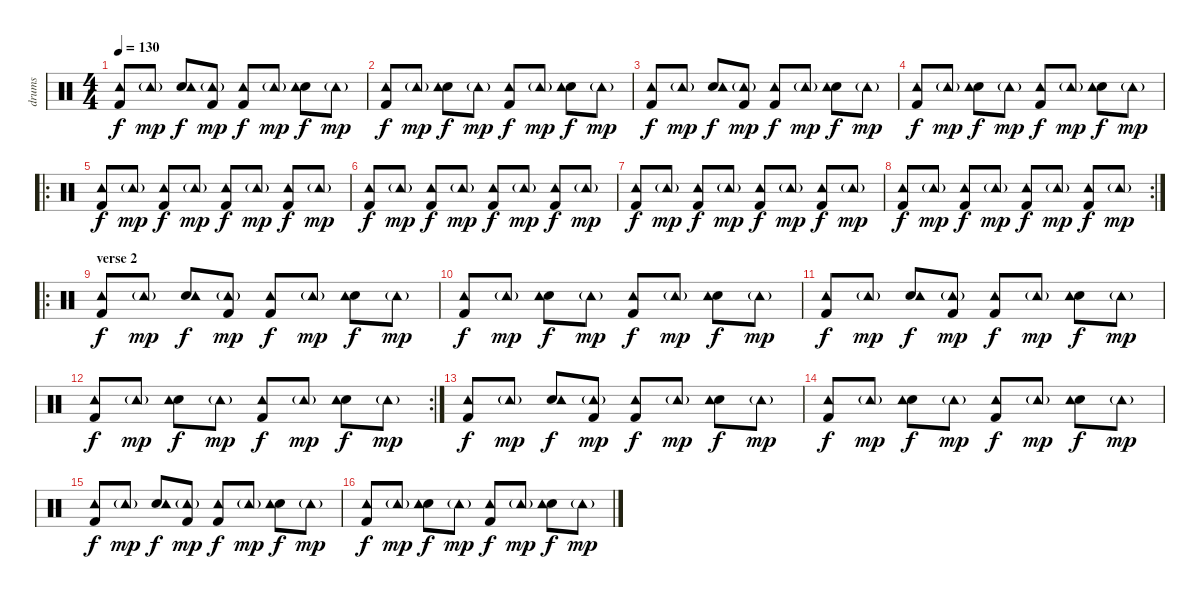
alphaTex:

\track ("drums" "drums") {instrument percussion}
\staff {score}
\articulation defaults
\ts (4 4)
\tempo 130
\clef neutral
\ks c
("Kick (hit) 2" "Tambourine (hit)").8{dy f} "Tambourine (hit)"{g}.8{dy mp} ("Electric Snare (hit)" "Tambourine (hit)").8{dy f} ("Kick (hit) 2" "Tambourine (hit)"{g}).8{dy mp} ("Kick (hit) 2" "Tambourine (hit)").8{dy f} "Tambourine (hit)"{g}.8{dy mp} ("Electric Snare (hit)" "Tambourine (hit)").8{dy f} "Tambourine (hit)"{g}.8{dy mp} |
("Kick (hit) 2" "Tambourine (hit)").8{dy f} "Tambourine (hit)"{g}.8{dy mp} ("Electric Snare (hit)" "Tambourine (hit)").8{dy f} "Tambourine (hit)"{g}.8{dy mp} ("Kick (hit) 2" "Tambourine (hit)").8{dy f} "Tambourine (hit)"{g}.8{dy mp} ("Electric Snare (hit)" "Tambourine (hit)").8{dy f} "Tambourine (hit)"{g}.8{dy mp} |
("Kick (hit) 2" "Tambourine (hit)").8{dy f} "Tambourine (hit)"{g}.8{dy mp} ("Electric Snare (hit)" "Tambourine (hit)").8{dy f} ("Kick (hit) 2" "Tambourine (hit)"{g}).8{dy mp} ("Kick (hit) 2" "Tambourine (hit)").8{dy f} "Tambourine (hit)"{g}.8{dy mp} ("Electric Snare (hit)" "Tambourine (hit)").8{dy f} "Tambourine (hit)"{g}.8{dy mp} |
("Kick (hit) 2" "Tambourine (hit)").8{dy f} "Tambourine (hit)"{g}.8{dy mp} ("Electric Snare (hit)" "Tambourine (hit)").8{dy f} "Tambourine (hit)"{g}.8{dy mp} ("Kick (hit) 2" "Tambourine (hit)").8{dy f} "Tambourine (hit)"{g}.8{dy mp} ("Electric Snare (hit)" "Tambourine (hit)").8{dy f} "Tambourine (hit)"{g}.8{dy mp} |
\ro
("Kick (hit) 2" "Tambourine (hit)").8{dy f} "Tambourine (hit)"{g}.8{dy mp} ("Kick (hit) 2" "Tambourine (hit)").8{dy f} "Tambourine (hit)"{g}.8{dy mp} ("Kick (hit) 2" "Tambourine (hit)").8{dy f} "Tambourine (hit)"{g}.8{dy mp} ("Kick (hit) 2" "Tambourine (hit)").8{dy f} "Tambourine (hit)"{g}.8{dy mp} |
("Kick (hit) 2" "Tambourine (hit)").8{dy f} "Tambourine (hit)"{g}.8{dy mp} ("Kick (hit) 2" "Tambourine (hit)").8{dy f} "Tambourine (hit)"{g}.8{dy mp} ("Kick (hit) 2" "Tambourine (hit)").8{dy f} "Tambourine (hit)"{g}.8{dy mp} ("Kick (hit) 2" "Tambourine (hit)").8{dy f} "Tambourine (hit)"{g}.8{dy mp} |
("Kick (hit) 2" "Tambourine (hit)").8{dy f} "Tambourine (hit)"{g}.8{dy mp} ("Kick (hit) 2" "Tambourine (hit)").8{dy f} "Tambourine (hit)"{g}.8{dy mp} ("Kick (hit) 2" "Tambourine (hit)").8{dy f} "Tambourine (hit)"{g}.8{dy mp} ("Kick (hit) 2" "Tambourine (hit)").8{dy f} "Tambourine (hit)"{g}.8{dy mp} |
\rc 2
("Kick (hit) 2" "Tambourine (hit)").8{dy f} "Tambourine (hit)"{g}.8{dy mp} ("Kick (hit) 2" "Tambourine (hit)").8{dy f} "Tambourine (hit)"{g}.8{dy mp} ("Kick (hit) 2" "Tambourine (hit)").8{dy f} "Tambourine (hit)"{g}.8{dy mp} ("Kick (hit) 2" "Tambourine (hit)").8{dy f} "Tambourine (hit)"{g}.8{dy mp} |
\ro
\section ("" "verse 2")
("Kick (hit) 2" "Tambourine (hit)").8{dy f} "Tambourine (hit)"{g}.8{dy mp} ("Electric Snare (hit)" "Tambourine (hit)").8{dy f} ("Kick (hit) 2" "Tambourine (hit)"{g}).8{dy mp} ("Kick (hit) 2" "Tambourine (hit)").8{dy f} "Tambourine (hit)"{g}.8{dy mp} ("Electric Snare (hit)" "Tambourine (hit)").8{dy f} "Tambourine (hit)"{g}.8{dy mp} |
("Kick (hit) 2" "Tambourine (hit)").8{dy f} "Tambourine (hit)"{g}.8{dy mp} ("Electric Snare (hit)" "Tambourine (hit)").8{dy f} "Tambourine (hit)"{g}.8{dy mp} ("Kick (hit) 2" "Tambourine (hit)").8{dy f} "Tambourine (hit)"{g}.8{dy mp} ("Electric Snare (hit)" "Tambourine (hit)").8{dy f} "Tambourine (hit)"{g}.8{dy mp} |
("Kick (hit) 2" "Tambourine (hit)").8{dy f} "Tambourine (hit)"{g}.8{dy mp} ("Electric Snare (hit)" "Tambourine (hit)").8{dy f} ("Kick (hit) 2" "Tambourine (hit)"{g}).8{dy mp} ("Kick (hit) 2" "Tambourine (hit)").8{dy f} "Tambourine (hit)"{g}.8{dy mp} ("Electric Snare (hit)" "Tambourine (hit)").8{dy f} "Tambourine (hit)"{g}.8{dy mp} |
\rc 2
("Kick (hit) 2" "Tambourine (hit)").8{dy f} "Tambourine (hit)"{g}.8{dy mp} ("Electric Snare (hit)" "Tambourine (hit)").8{dy f} "Tambourine (hit)"{g}.8{dy mp} ("Kick (hit) 2" "Tambourine (hit)").8{dy f} "Tambourine (hit)"{g}.8{dy mp} ("Electric Snare (hit)" "Tambourine (hit)").8{dy f} "Tambourine (hit)"{g}.8{dy mp} |
("Kick (hit) 2" "Tambourine (hit)").8{dy f} "Tambourine (hit)"{g}.8{dy mp} ("Electric Snare (hit)" "Tambourine (hit)").8{dy f} ("Kick (hit) 2" "Tambourine (hit)"{g}).8{dy mp} ("Kick (hit) 2" "Tambourine (hit)").8{dy f} "Tambourine (hit)"{g}.8{dy mp} ("Electric Snare (hit)" "Tambourine (hit)").8{dy f} "Tambourine (hit)"{g}.8{dy mp} |
("Kick (hit) 2" "Tambourine (hit)").8{dy f} "Tambourine (hit)"{g}.8{dy mp} ("Electric Snare (hit)" "Tambourine (hit)").8{dy f} "Tambourine (hit)"{g}.8{dy mp} ("Kick (hit) 2" "Tambourine (hit)").8{dy f} "Tambourine (hit)"{g}.8{dy mp} ("Electric Snare (hit)" "Tambourine (hit)").8{dy f} "Tambourine (hit)"{g}.8{dy mp} |
("Kick (hit) 2" "Tambourine (hit)").8{dy f} "Tambourine (hit)"{g}.8{dy mp} ("Electric Snare (hit)" "Tambourine (hit)").8{dy f} ("Kick (hit) 2" "Tambourine (hit)"{g}).8{dy mp} ("Kick (hit) 2" "Tambourine (hit)").8{dy f} "Tambourine (hit)"{g}.8{dy mp} ("Electric Snare (hit)" "Tambourine (hit)").8{dy f} "Tambourine (hit)"{g}.8{dy mp} |
("Kick (hit) 2" "Tambourine (hit)").8{dy f} "Tambourine (hit)"{g}.8{dy mp} ("Electric Snare (hit)" "Tambourine (hit)").8{dy f} "Tambourine (hit)"{g}.8{dy mp} ("Kick (hit) 2" "Tambourine (hit)").8{dy f} "Tambourine (hit)"{g}.8{dy mp} ("Electric Snare (hit)" "Tambourine (hit)").8{dy f} "Tambourine (hit)"{g}.8{dy mp}
